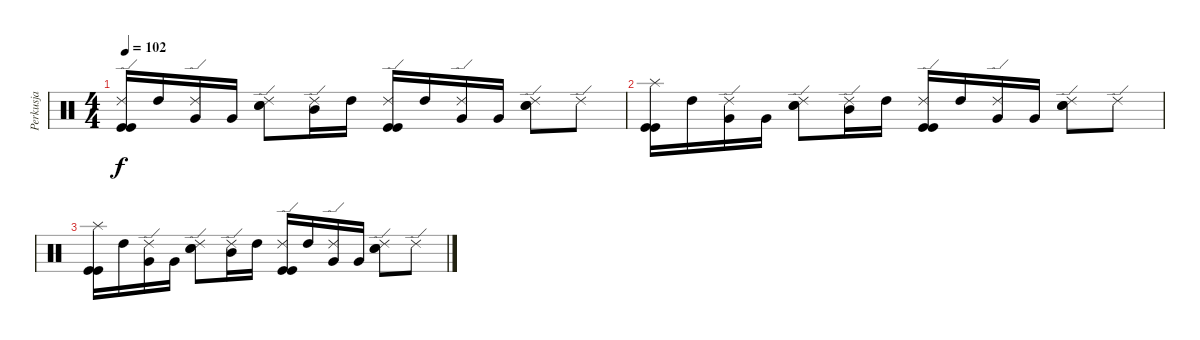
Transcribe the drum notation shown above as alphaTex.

\track ("Perkusja" "Perkusja") {instrument percussion}
\staff {score}
\articulation defaults
\ts (4 4)
\tempo 102
\clef neutral
\ks c
("Kick (hit)" "Kick (hit)" "Ride (edge) 2").16{dy f} "High Tom (hit)".16 ("Very Low Tom (hit)" "Ride (edge) 2").16 "Very Low Tom (hit)".16 ("Electric Snare (hit)" "Electric Snare (hit)" "Ride (edge) 2").8 ("Mid Tom (hit)" "Ride (edge) 2").16 "High Tom (hit)".16 ("Kick (hit)" "Kick (hit)" "Ride (edge) 2").16 "High Tom (hit)".16 ("Very Low Tom (hit)" "Ride (edge) 2").16 "Very Low Tom (hit)".16 ("Electric Snare (hit)" "Electric Snare (hit)" "Ride (edge) 2").8 "Ride (edge) 2".8 |
("Kick (hit)" "Kick (hit)" "Splash (hit)").16 "High Tom (hit)".16 ("Very Low Tom (hit)" "Ride (edge) 2").16 "Very Low Tom (hit)".16 ("Electric Snare (hit)" "Electric Snare (hit)" "Ride (edge) 2").8 ("Mid Tom (hit)" "Ride (edge) 2").16 "High Tom (hit)".16 ("Kick (hit)" "Kick (hit)" "Ride (edge) 2").16 "High Tom (hit)".16 ("Very Low Tom (hit)" "Ride (edge) 2").16 "Very Low Tom (hit)".16 ("Electric Snare (hit)" "Electric Snare (hit)" "Ride (edge) 2").8 "Ride (edge) 2".8 |
("Kick (hit)" "Kick (hit)" "Splash (hit)").16 "High Tom (hit)".16 ("Very Low Tom (hit)" "Ride (edge) 2").16 "Very Low Tom (hit)".16 ("Electric Snare (hit)" "Electric Snare (hit)" "Ride (edge) 2").8 ("Mid Tom (hit)" "Ride (edge) 2").16 "High Tom (hit)".16 ("Kick (hit)" "Kick (hit)" "Ride (edge) 2").16 "High Tom (hit)".16 ("Very Low Tom (hit)" "Ride (edge) 2").16 "Very Low Tom (hit)".16 ("Electric Snare (hit)" "Electric Snare (hit)" "Ride (edge) 2").8 "Ride (edge) 2".8
